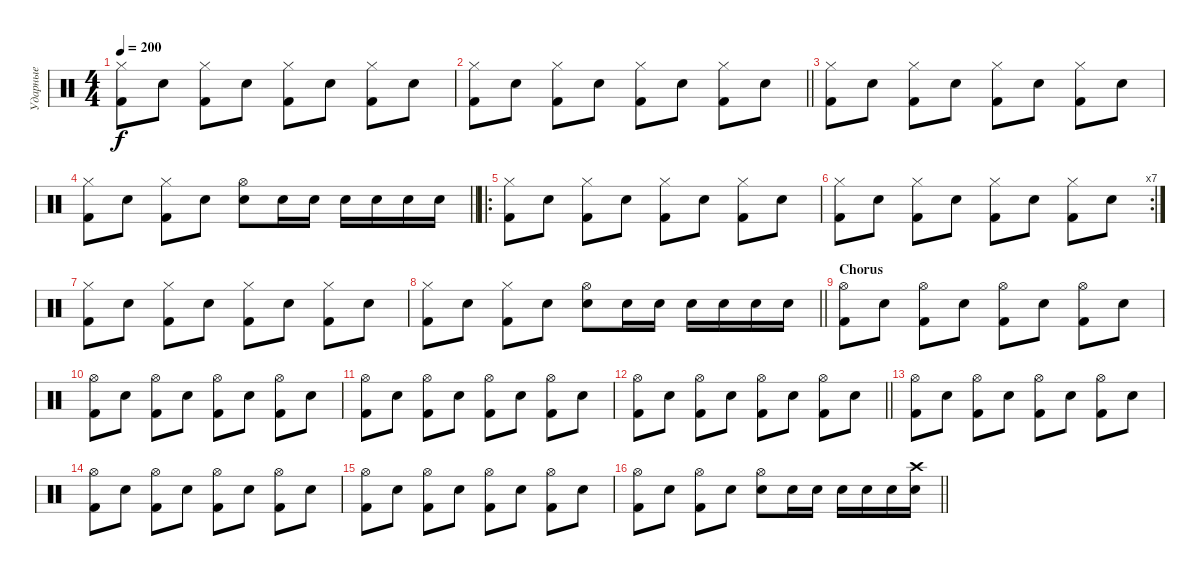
\track ("Ударные" "Ударные") {instrument percussion}
\staff {score}
\articulation defaults
\ts (4 4)
\tempo 200
\clef neutral
\ks c
("Hi-Hat (closed)" "Kick (hit) 2").8{dy f} "Snare (hit) 2".8 ("Hi-Hat (closed)" "Kick (hit) 2").8 "Snare (hit) 2".8 ("Hi-Hat (closed)" "Kick (hit) 2").8 "Snare (hit) 2".8 ("Hi-Hat (closed)" "Kick (hit) 2").8 "Snare (hit) 2".8 |
\barLineRight lightlight
("Hi-Hat (closed)" "Kick (hit) 2").8 "Snare (hit) 2".8 ("Hi-Hat (closed)" "Kick (hit) 2").8 "Snare (hit) 2".8 ("Hi-Hat (closed)" "Kick (hit) 2").8 "Snare (hit) 2".8 ("Hi-Hat (closed)" "Kick (hit) 2").8 "Snare (hit) 2".8 |
("Hi-Hat (closed)" "Kick (hit) 2").8 "Snare (hit) 2".8 ("Hi-Hat (closed)" "Kick (hit) 2").8 "Snare (hit) 2".8 ("Hi-Hat (closed)" "Kick (hit) 2").8 "Snare (hit) 2".8 ("Hi-Hat (closed)" "Kick (hit) 2").8 "Snare (hit) 2".8 |
\barLineRight lightlight
("Hi-Hat (closed)" "Kick (hit) 2").8 "Snare (hit) 2".8 ("Hi-Hat (closed)" "Kick (hit) 2").8 "Snare (hit) 2".8 ("Hi-Hat (open)" "Snare (hit) 2").8 "Snare (hit) 2".16 "Snare (hit) 2".16 "Snare (hit) 2".16 "Snare (hit) 2".16 "Snare (hit) 2".16 "Snare (hit) 2".16 |
\ro
("Hi-Hat (closed)" "Kick (hit) 2").8 "Snare (hit) 2".8 ("Hi-Hat (closed)" "Kick (hit) 2").8 "Snare (hit) 2".8 ("Hi-Hat (closed)" "Kick (hit) 2").8 "Snare (hit) 2".8 ("Hi-Hat (closed)" "Kick (hit) 2").8 "Snare (hit) 2".8 |
\rc 7
("Hi-Hat (closed)" "Kick (hit) 2").8 "Snare (hit) 2".8 ("Hi-Hat (closed)" "Kick (hit) 2").8 "Snare (hit) 2".8 ("Hi-Hat (closed)" "Kick (hit) 2").8 "Snare (hit) 2".8 ("Hi-Hat (closed)" "Kick (hit) 2").8 "Snare (hit) 2".8 |
("Hi-Hat (closed)" "Kick (hit) 2").8 "Snare (hit) 2".8 ("Hi-Hat (closed)" "Kick (hit) 2").8 "Snare (hit) 2".8 ("Hi-Hat (closed)" "Kick (hit) 2").8 "Snare (hit) 2".8 ("Hi-Hat (closed)" "Kick (hit) 2").8 "Snare (hit) 2".8 |
\barLineRight lightlight
("Hi-Hat (closed)" "Kick (hit) 2").8 "Snare (hit) 2".8 ("Hi-Hat (closed)" "Kick (hit) 2").8 "Snare (hit) 2".8 ("Hi-Hat (open)" "Snare (hit) 2").8 "Snare (hit) 2".16 "Snare (hit) 2".16 "Snare (hit) 2".16 "Snare (hit) 2".16 "Snare (hit) 2".16 "Snare (hit) 2".16 |
\section ("" "Chorus")
("Hi-Hat (open)" "Kick (hit) 2").8 "Snare (hit) 2".8 ("Hi-Hat (open)" "Kick (hit) 2").8 "Snare (hit) 2".8 ("Hi-Hat (open)" "Kick (hit) 2").8 "Snare (hit) 2".8 ("Hi-Hat (open)" "Kick (hit) 2").8 "Snare (hit) 2".8 |
("Hi-Hat (open)" "Kick (hit) 2").8 "Snare (hit) 2".8 ("Hi-Hat (open)" "Kick (hit) 2").8 "Snare (hit) 2".8 ("Hi-Hat (open)" "Kick (hit) 2").8 "Snare (hit) 2".8 ("Hi-Hat (open)" "Kick (hit) 2").8 "Snare (hit) 2".8 |
("Hi-Hat (open)" "Kick (hit) 2").8 "Snare (hit) 2".8 ("Hi-Hat (open)" "Kick (hit) 2").8 "Snare (hit) 2".8 ("Hi-Hat (open)" "Kick (hit) 2").8 "Snare (hit) 2".8 ("Hi-Hat (open)" "Kick (hit) 2").8 "Snare (hit) 2".8 |
\barLineRight lightlight
("Hi-Hat (open)" "Kick (hit) 2").8 "Snare (hit) 2".8 ("Hi-Hat (open)" "Kick (hit) 2").8 "Snare (hit) 2".8 ("Hi-Hat (open)" "Kick (hit) 2").8 "Snare (hit) 2".8 ("Hi-Hat (open)" "Kick (hit) 2").8 "Snare (hit) 2".8 |
("Hi-Hat (open)" "Kick (hit) 2").8 "Snare (hit) 2".8 ("Hi-Hat (open)" "Kick (hit) 2").8 "Snare (hit) 2".8 ("Hi-Hat (open)" "Kick (hit) 2").8 "Snare (hit) 2".8 ("Hi-Hat (open)" "Kick (hit) 2").8 "Snare (hit) 2".8 |
("Hi-Hat (open)" "Kick (hit) 2").8 "Snare (hit) 2".8 ("Hi-Hat (open)" "Kick (hit) 2").8 "Snare (hit) 2".8 ("Hi-Hat (open)" "Kick (hit) 2").8 "Snare (hit) 2".8 ("Hi-Hat (open)" "Kick (hit) 2").8 "Snare (hit) 2".8 |
("Hi-Hat (open)" "Kick (hit) 2").8 "Snare (hit) 2".8 ("Hi-Hat (open)" "Kick (hit) 2").8 "Snare (hit) 2".8 ("Hi-Hat (open)" "Kick (hit) 2").8 "Snare (hit) 2".8 ("Hi-Hat (open)" "Kick (hit) 2").8 "Snare (hit) 2".8 |
\barLineRight lightlight
("Hi-Hat (open)" "Kick (hit) 2").8 "Snare (hit) 2".8 ("Hi-Hat (open)" "Kick (hit) 2").8 "Snare (hit) 2".8 ("Hi-Hat (open)" "Snare (hit) 2").8 "Snare (hit) 2".16 "Snare (hit) 2".16 "Snare (hit) 2".16 "Snare (hit) 2".16 "Snare (hit) 2".16 ("Crash high (hit)" "Snare (hit) 2").16
